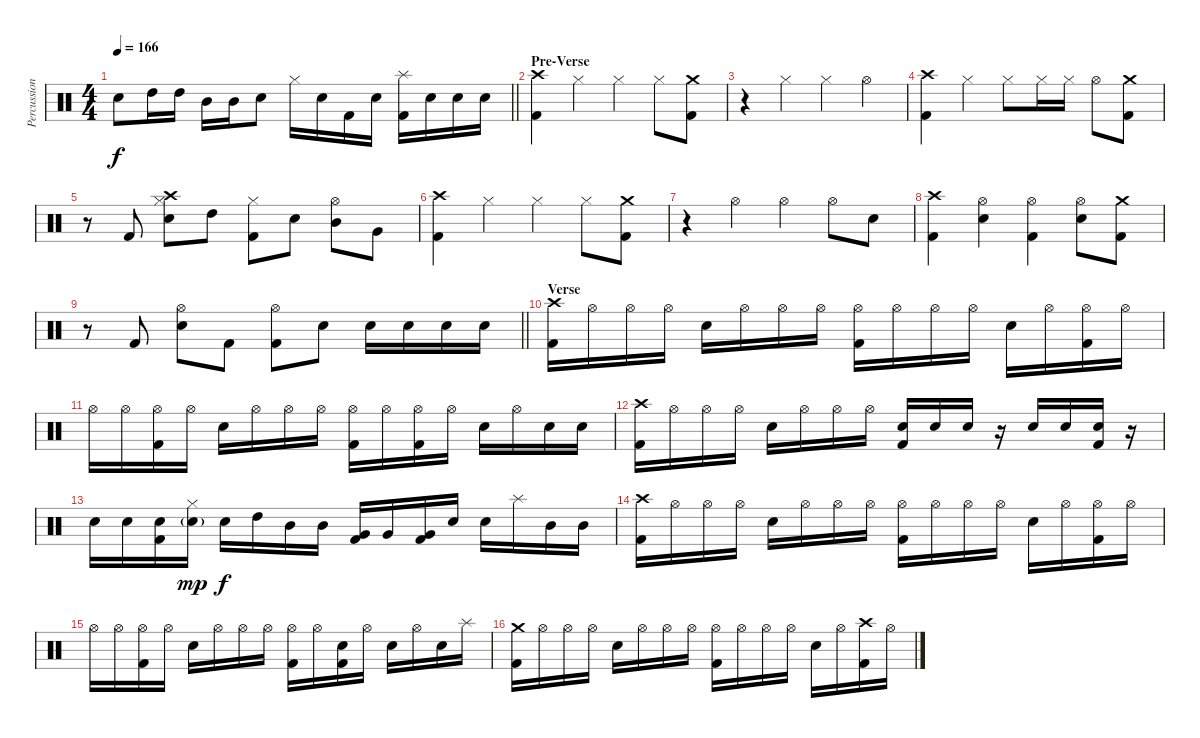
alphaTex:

\track ("Percussion" "Percussion") {instrument percussion}
\staff {score}
\articulation defaults
\ts (4 4)
\tempo 166
\clef neutral
\barLineRight lightlight
\ks c "Electric Snare (hit)".8{dy f} "High Tom (hit)".16 "High Tom (hit)".16 "Mid Tom (hit)".16 "Mid Tom (hit)".16 "Electric Snare (hit)".8 "Hi-Hat (closed)".16 "Electric Snare (hit)".16 "Kick (hit) 2".16 "Electric Snare (hit)".16
("Splash (hit)" "Kick (hit) 2").16 "Electric Snare (hit)".16 "Electric Snare (hit)".16 "Electric Snare (hit)".16 |
\section ("" "Pre-Verse")
("Crash high (hit)" "Kick (hit) 2").4 "Hi-Hat (closed)".4 "Hi-Hat (closed)".4 "Hi-Hat (closed)".8 ("Crash medium (hit)" "Kick (hit) 2").8 |
r.4 "Hi-Hat (closed)".4 "Hi-Hat (closed)".4 "Hi-Hat (open)".4 |
("Crash high (hit)" "Kick (hit) 2").4 "Hi-Hat (closed)".4 "Hi-Hat (closed)".8 "Hi-Hat (closed)".16 "Hi-Hat (closed)".16 "Hi-Hat (open)".8 ("Crash medium (hit)" "Kick (hit) 2").8 |
r.8 "Kick (hit) 2".8 ("Crash high (hit)" "Hi-Hat (closed)" "Electric Snare (hit)").8 "High Tom (hit)".8 ("Hi-Hat (closed)" "Kick (hit) 2").8 "Electric Snare (hit)".8 ("Hi-Hat (open)" "Mid Tom (hit)").8 "Very Low Tom (hit)".8 |
("Crash high (hit)" "Kick (hit) 2").4 "Hi-Hat (closed)".4 "Hi-Hat (closed)".4 "Hi-Hat (closed)".8 ("Crash medium (hit)" "Kick (hit) 2").8 |
r.4 "Hi-Hat (open)".4 "Hi-Hat (open)".4 "Hi-Hat (open)".8 "Electric Snare (hit)".8 |
("Crash high (hit)" "Kick (hit) 2").4 ("Hi-Hat (open)" "Electric Snare (hit)").4 ("Hi-Hat (open)" "Kick (hit) 2").4 ("Hi-Hat (open)" "Electric Snare (hit)").8 ("Crash medium (hit)" "Kick (hit) 2").8 |
\barLineRight lightlight
r.8 "Kick (hit) 2".8 ("Hi-Hat (open)" "Electric Snare (hit)").8 "Kick (hit) 2".8 ("Hi-Hat (open)" "Kick (hit) 2").8 "Electric Snare (hit)".8 "Electric Snare (hit)".16 "Electric Snare (hit)".16 "Electric Snare (hit)".16 "Electric Snare (hit)".16 |
\section ("" "Verse")
("Crash high (hit)" "Kick (hit) 2").16 "Hi-Hat (open)".16 "Hi-Hat (open)".16 "Hi-Hat (open)".16 "Electric Snare (hit)".16 "Hi-Hat (open)".16 "Hi-Hat (open)".16 "Hi-Hat (open)".16 ("Hi-Hat (open)" "Kick (hit) 2").16 "Hi-Hat (open)".16 "Hi-Hat (open)".16 "Hi-Hat (open)".16 "Electric Snare (hit)".16 "Hi-Hat (open)".16 ("Hi-Hat (open)" "Kick (hit) 2").16 "Hi-Hat (open)".16 |
"Hi-Hat (open)".16 "Hi-Hat (open)".16 ("Hi-Hat (open)" "Kick (hit) 2").16 "Hi-Hat (open)".16 "Electric Snare (hit)".16 "Hi-Hat (open)".16 "Hi-Hat (open)".16 "Hi-Hat (open)".16 ("Hi-Hat (open)" "Kick (hit) 2").16 "Hi-Hat (open)".16 ("Hi-Hat (open)" "Kick (hit) 2").16 "Hi-Hat (open)".16 "Electric Snare (hit)".16 "Hi-Hat (open)".16 "Electric Snare (hit)".16 "Electric Snare (hit)".16 |
("Crash high (hit)" "Kick (hit) 2").16 "Hi-Hat (open)".16 "Hi-Hat (open)".16 "Hi-Hat (open)".16 "Electric Snare (hit)".16 "Hi-Hat (open)".16 "Hi-Hat (open)".16 "Hi-Hat (open)".16 ("Electric Snare (hit)" "Kick (hit) 2").16 "Electric Snare (hit)".16 "Electric Snare (hit)".16 r.16 "Electric Snare (hit)".16 "Electric Snare (hit)".16 ("Electric Snare (hit)" "Kick (hit) 2").16 r.16 |
"Electric Snare (hit)".16 "Electric Snare (hit)".16 ("Electric Snare (hit)" "Kick (hit) 2").16 ("Hi-Hat (closed)" "Electric Snare (hit)"{g}).16{dy mp} "Electric Snare (hit)".16{dy f} "High Tom (hit)".16 "Mid Tom (hit)".16 "Mid Tom (hit)".16 ("Very Low Tom (hit)" "Kick (hit) 2").16 "Very Low Tom (hit)".16 ("Very Low Tom (hit)" "Kick (hit) 2").16 "Electric Snare (hit)".16 "Electric Snare (hit)".16 "Splash (hit)".16 "Mid Tom (hit)".16 "Mid Tom (hit)".16 |
("Crash high (hit)" "Kick (hit) 2").16 "Hi-Hat (open)".16 "Hi-Hat (open)".16 "Hi-Hat (open)".16 "Electric Snare (hit)".16 "Hi-Hat (open)".16 "Hi-Hat (open)".16 "Hi-Hat (open)".16 ("Hi-Hat (open)" "Kick (hit) 2").16 "Hi-Hat (open)".16 "Hi-Hat (open)".16 "Hi-Hat (open)".16 "Electric Snare (hit)".16 "Hi-Hat (open)".16 ("Hi-Hat (open)" "Kick (hit) 2").16 "Hi-Hat (open)".16 |
"Hi-Hat (open)".16 "Hi-Hat (open)".16 ("Hi-Hat (open)" "Kick (hit) 2").16 "Hi-Hat (open)".16 "Electric Snare (hit)".16 "Hi-Hat (open)".16 "Hi-Hat (open)".16 "Hi-Hat (open)".16 ("Hi-Hat (open)" "Kick (hit) 2").16 "Hi-Hat (open)".16 ("Electric Snare (hit)" "Kick (hit) 2").16 "Hi-Hat (open)".16 "Electric Snare (hit)".16 "Hi-Hat (open)".16 "Electric Snare (hit)".16 "Splash (hit)".16 |
("Crash medium (hit)" "Kick (hit) 2").16 "Hi-Hat (open)".16 "Hi-Hat (open)".16 "Hi-Hat (open)".16 "Electric Snare (hit)".16 "Hi-Hat (open)".16 "Hi-Hat (open)".16 "Hi-Hat (open)".16 ("Hi-Hat (open)" "Kick (hit) 2").16 "Hi-Hat (open)".16 "Hi-Hat (open)".16 "Hi-Hat (open)".16 "Electric Snare (hit)".16 "Hi-Hat (open)".16 ("Crash high (hit)" "Kick (hit) 2").16 "Hi-Hat (open)".16
